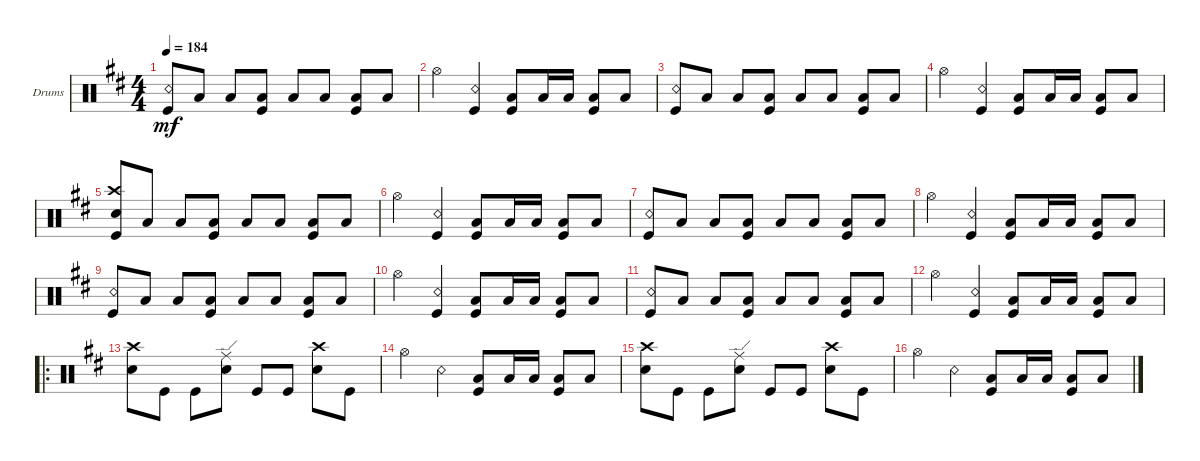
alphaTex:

\defaultSystemsLayout 4
\bracketExtendMode groupsimilarinstruments
\firstSystemTrackNameOrientation horizontal
\otherSystemsTrackNameOrientation horizontal
\track ("Drums" "Drums") {instrument percussion}
\staff {score}
\articulation defaults
\ts (4 4)
\tempo 184
\clef neutral
\ks d
("Kick (hit)" "Snare (rim shot)").8{dy mf} "Low Tom (hit)".8 "Low Tom (hit)".8 ("Low Tom (hit)" "Kick (hit)").8 "Low Tom (hit)".8 "Low Tom (hit)".8 ("Low Tom (hit)" "Kick (hit)").8 "Low Tom (hit)".8 |
"Hi-Hat (open)".4 ("Kick (hit)" "Snare (rim shot)").4 ("Low Tom (hit)" "Kick (hit)").8 "Low Tom (hit)".16 "Low Tom (hit)".16 ("Low Tom (hit)" "Kick (hit)").8 "Low Tom (hit)".8 |
("Kick (hit)" "Snare (rim shot)").8 "Low Tom (hit)".8 "Low Tom (hit)".8 ("Low Tom (hit)" "Kick (hit)").8 "Low Tom (hit)".8 "Low Tom (hit)".8 ("Low Tom (hit)" "Kick (hit)").8 "Low Tom (hit)".8 |
"Hi-Hat (open)".4 ("Kick (hit)" "Snare (rim shot)").4 ("Low Tom (hit)" "Kick (hit)").8 "Low Tom (hit)".16 "Low Tom (hit)".16 ("Low Tom (hit)" "Kick (hit)").8 "Low Tom (hit)".8 |
("Kick (hit)" "Crash high (hit)" "Snare (hit) 2").8 "Low Tom (hit)".8 "Low Tom (hit)".8 ("Low Tom (hit)" "Kick (hit)").8 "Low Tom (hit)".8 "Low Tom (hit)".8 ("Low Tom (hit)" "Kick (hit)").8 "Low Tom (hit)".8 |
"Hi-Hat (open)".4 ("Kick (hit)" "Snare (rim shot)").4 ("Low Tom (hit)" "Kick (hit)").8 "Low Tom (hit)".16 "Low Tom (hit)".16 ("Low Tom (hit)" "Kick (hit)").8 "Low Tom (hit)".8 |
("Kick (hit)" "Snare (rim shot)").8 "Low Tom (hit)".8 "Low Tom (hit)".8 ("Low Tom (hit)" "Kick (hit)").8 "Low Tom (hit)".8 "Low Tom (hit)".8 ("Low Tom (hit)" "Kick (hit)").8 "Low Tom (hit)".8 |
"Hi-Hat (open)".4 ("Kick (hit)" "Snare (rim shot)").4 ("Low Tom (hit)" "Kick (hit)").8 "Low Tom (hit)".16 "Low Tom (hit)".16 ("Low Tom (hit)" "Kick (hit)").8 "Low Tom (hit)".8 |
("Kick (hit)" "Snare (rim shot)").8 "Low Tom (hit)".8 "Low Tom (hit)".8 ("Low Tom (hit)" "Kick (hit)").8 "Low Tom (hit)".8 "Low Tom (hit)".8 ("Low Tom (hit)" "Kick (hit)").8 "Low Tom (hit)".8 |
"Hi-Hat (open)".4 ("Kick (hit)" "Snare (rim shot)").4 ("Low Tom (hit)" "Kick (hit)").8 "Low Tom (hit)".16 "Low Tom (hit)".16 ("Low Tom (hit)" "Kick (hit)").8 "Low Tom (hit)".8 |
("Kick (hit)" "Snare (rim shot)").8 "Low Tom (hit)".8 "Low Tom (hit)".8 ("Low Tom (hit)" "Kick (hit)").8 "Low Tom (hit)".8 "Low Tom (hit)".8 ("Low Tom (hit)" "Kick (hit)").8 "Low Tom (hit)".8 |
"Hi-Hat (open)".4 ("Kick (hit)" "Snare (rim shot)").4 ("Low Tom (hit)" "Kick (hit)").8 "Low Tom (hit)".16 "Low Tom (hit)".16 ("Low Tom (hit)" "Kick (hit)").8 "Low Tom (hit)".8 |
\ro
("Snare (hit) 2" "Crash high (hit)").8 "Kick (hit)".8 "Kick (hit)".8 ("Snare (hit) 2" "Ride (edge)").8 "Kick (hit)".8 "Kick (hit)".8 ("Snare (hit) 2" "Crash high (hit)").8 "Kick (hit)".8 |
"Hi-Hat (open)".4 "Snare (rim shot)".4 ("Low Tom (hit)" "Kick (hit)").8 "Low Tom (hit)".16 "Low Tom (hit)".16 ("Low Tom (hit)" "Kick (hit)").8 "Low Tom (hit)".8 |
("Snare (hit) 2" "Crash high (hit)").8 "Kick (hit)".8 "Kick (hit)".8 ("Snare (hit) 2" "Ride (edge)").8 "Kick (hit)".8 "Kick (hit)".8 ("Snare (hit) 2" "Crash high (hit)").8 "Kick (hit)".8 |
"Hi-Hat (open)".4 "Snare (rim shot)".4 ("Low Tom (hit)" "Kick (hit)").8 "Low Tom (hit)".16 "Low Tom (hit)".16 ("Low Tom (hit)" "Kick (hit)").8 "Low Tom (hit)".8
